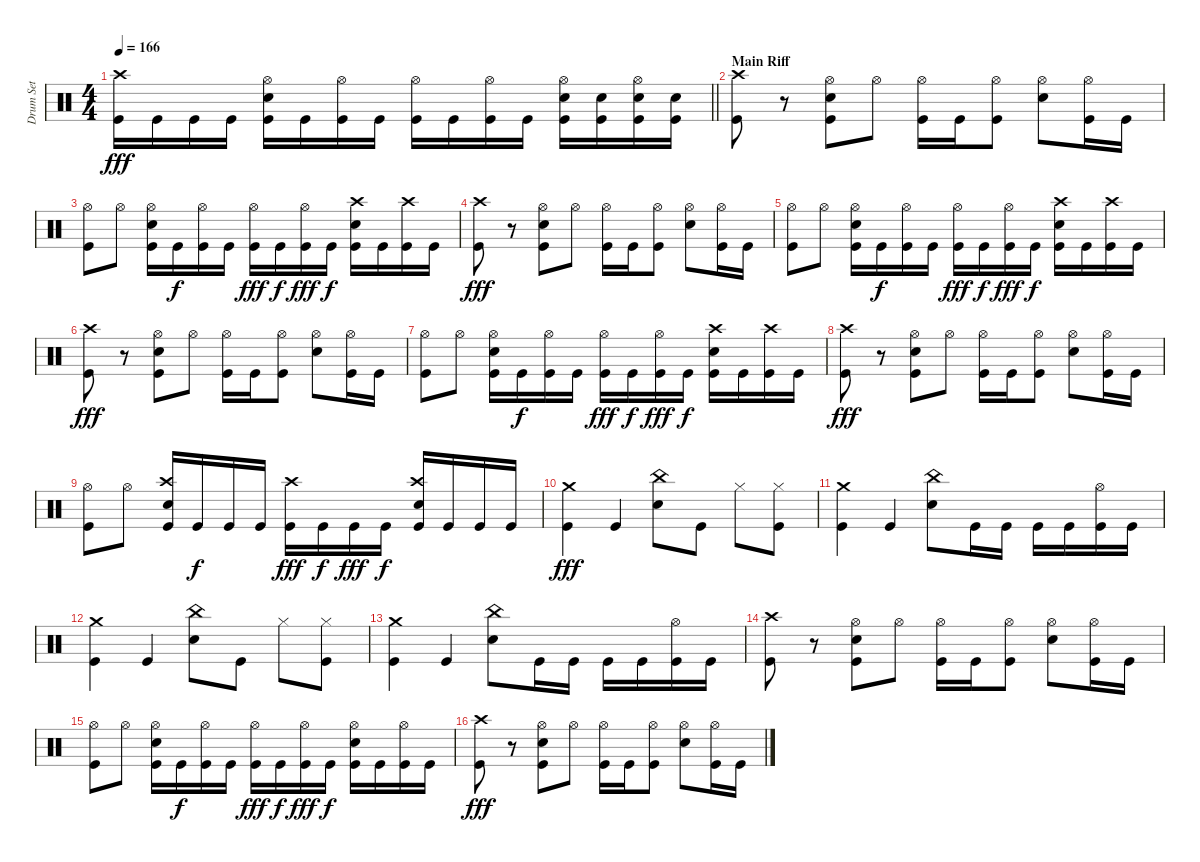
\track ("Drum Set" "Drum Set") {instrument percussion}
\staff {score}
\articulation defaults
\ts (4 4)
\tempo 166
\clef neutral
\barLineRight lightlight
\ks c
("Kick (hit)" "Crash high (hit)").16{dy fff} "Kick (hit)".16 "Kick (hit)".16 "Kick (hit)".16 ("Electric Snare (hit)" "Kick (hit)" "Hi-Hat (open)").16 "Kick (hit)".16 ("Kick (hit)" "Hi-Hat (open)").16 "Kick (hit)".16 ("Kick (hit)" "Hi-Hat (open)").16 "Kick (hit)".16 ("Kick (hit)" "Hi-Hat (open)").16 "Kick (hit)".16 ("Electric Snare (hit)" "Kick (hit)" "Hi-Hat (open)").16 ("Electric Snare (hit)" "Kick (hit)").16 ("Electric Snare (hit)" "Kick (hit)" "Hi-Hat (open)").16 ("Electric Snare (hit)" "Kick (hit)").16 |
\section ("" "Main Riff")
("Kick (hit)" "Crash high (hit)").8 r.8 ("Electric Snare (hit)" "Kick (hit)" "Hi-Hat (open)").8 "Hi-Hat (open)".8 ("Kick (hit)" "Hi-Hat (open)").16 "Kick (hit)".16 ("Kick (hit)" "Hi-Hat (open)").8 ("Electric Snare (hit)" "Hi-Hat (open)").8 ("Kick (hit)" "Hi-Hat (open)").16 "Kick (hit)".16 |
("Kick (hit)" "Hi-Hat (open)").8 "Hi-Hat (open)".8 ("Electric Snare (hit)" "Kick (hit)" "Hi-Hat (open)").16 "Kick (hit)".16{dy f} ("Kick (hit)" "Hi-Hat (open)").16 "Kick (hit)".16 ("Kick (hit)" "Hi-Hat (open)").16{dy fff} "Kick (hit)".16{dy f} ("Kick (hit)" "Hi-Hat (open)").16{dy fff} "Kick (hit)".16{dy f} ("Electric Snare (hit)" "Kick (hit)" "Crash high (hit)").16 "Kick (hit)".16 ("Kick (hit)" "Crash high (hit)").16 "Kick (hit)".16 |
("Kick (hit)" "Crash high (hit)").8{dy fff} r.8 ("Electric Snare (hit)" "Kick (hit)" "Hi-Hat (open)").8 "Hi-Hat (open)".8 ("Kick (hit)" "Hi-Hat (open)").16 "Kick (hit)".16 ("Kick (hit)" "Hi-Hat (open)").8 ("Electric Snare (hit)" "Hi-Hat (open)").8 ("Kick (hit)" "Hi-Hat (open)").16 "Kick (hit)".16 |
("Kick (hit)" "Hi-Hat (open)").8 "Hi-Hat (open)".8 ("Electric Snare (hit)" "Kick (hit)" "Hi-Hat (open)").16 "Kick (hit)".16{dy f} ("Kick (hit)" "Hi-Hat (open)").16 "Kick (hit)".16 ("Kick (hit)" "Hi-Hat (open)").16{dy fff} "Kick (hit)".16{dy f} ("Kick (hit)" "Hi-Hat (open)").16{dy fff} "Kick (hit)".16{dy f} ("Electric Snare (hit)" "Kick (hit)" "Crash high (hit)").16 "Kick (hit)".16 ("Kick (hit)" "Crash high (hit)").16 "Kick (hit)".16 |
("Kick (hit)" "Crash high (hit)").8{dy fff} r.8 ("Electric Snare (hit)" "Kick (hit)" "Hi-Hat (open)").8 "Hi-Hat (open)".8 ("Kick (hit)" "Hi-Hat (open)").16 "Kick (hit)".16 ("Kick (hit)" "Hi-Hat (open)").8 ("Electric Snare (hit)" "Hi-Hat (open)").8 ("Kick (hit)" "Hi-Hat (open)").16 "Kick (hit)".16 |
("Kick (hit)" "Hi-Hat (open)").8 "Hi-Hat (open)".8 ("Electric Snare (hit)" "Kick (hit)" "Hi-Hat (open)").16 "Kick (hit)".16{dy f} ("Kick (hit)" "Hi-Hat (open)").16 "Kick (hit)".16 ("Kick (hit)" "Hi-Hat (open)").16{dy fff} "Kick (hit)".16{dy f} ("Kick (hit)" "Hi-Hat (open)").16{dy fff} "Kick (hit)".16{dy f} ("Electric Snare (hit)" "Kick (hit)" "Crash high (hit)").16 "Kick (hit)".16 ("Kick (hit)" "Crash high (hit)").16 "Kick (hit)".16 |
("Kick (hit)" "Crash high (hit)").8{dy fff} r.8 ("Electric Snare (hit)" "Kick (hit)" "Hi-Hat (open)").8 "Hi-Hat (open)".8 ("Kick (hit)" "Hi-Hat (open)").16 "Kick (hit)".16 ("Kick (hit)" "Hi-Hat (open)").8 ("Electric Snare (hit)" "Hi-Hat (open)").8 ("Kick (hit)" "Hi-Hat (open)").16 "Kick (hit)".16 |
("Kick (hit)" "Hi-Hat (open)").8 "Hi-Hat (open)".8 ("Electric Snare (hit)" "Kick (hit)" "Crash high (hit)").16 "Kick (hit)".16{dy f} "Kick (hit)".16 "Kick (hit)".16 ("Kick (hit)" "Crash high (hit)").16{dy fff} "Kick (hit)".16{dy f} "Kick (hit)".16{dy fff} "Kick (hit)".16{dy f} ("Electric Snare (hit)" "Kick (hit)" "Crash high (hit)").16 "Kick (hit)".16 "Kick (hit)".16 "Kick (hit)".16 |
("Kick (hit)" "Crash medium (hit)").4{dy fff} "Kick (hit)".4 ("Electric Snare (hit)" "China (hit)").8 "Kick (hit)".8 "Hi-Hat (closed)".8 ("Kick (hit)" "Hi-Hat (closed)").8 |
("Kick (hit)" "Crash medium (hit)").4 "Kick (hit)".4 ("Electric Snare (hit)" "China (hit)").8 "Kick (hit)".16 "Kick (hit)".16 "Kick (hit)".16 "Kick (hit)".16 ("Kick (hit)" "Hi-Hat (open)").16 "Kick (hit)".16 |
("Kick (hit)" "Crash medium (hit)").4 "Kick (hit)".4 ("Electric Snare (hit)" "China (hit)").8 "Kick (hit)".8 "Hi-Hat (closed)".8 ("Kick (hit)" "Hi-Hat (closed)").8 |
("Kick (hit)" "Crash medium (hit)").4 "Kick (hit)".4 ("Electric Snare (hit)" "China (hit)").8 "Kick (hit)".16 "Kick (hit)".16 "Kick (hit)".16 "Kick (hit)".16 ("Kick (hit)" "Hi-Hat (open)").16 "Kick (hit)".16 |
("Kick (hit)" "Crash high (hit)").8 r.8 ("Electric Snare (hit)" "Kick (hit)" "Hi-Hat (open)").8 "Hi-Hat (open)".8 ("Kick (hit)" "Hi-Hat (open)").16 "Kick (hit)".16 ("Kick (hit)" "Hi-Hat (open)").8 ("Electric Snare (hit)" "Hi-Hat (open)").8 ("Kick (hit)" "Hi-Hat (open)").16 "Kick (hit)".16 |
("Kick (hit)" "Hi-Hat (open)").8 "Hi-Hat (open)".8 ("Electric Snare (hit)" "Kick (hit)" "Hi-Hat (open)").16 "Kick (hit)".16{dy f} ("Kick (hit)" "Hi-Hat (open)").16 "Kick (hit)".16 ("Kick (hit)" "Hi-Hat (open)").16{dy fff} "Kick (hit)".16{dy f} ("Kick (hit)" "Hi-Hat (open)").16{dy fff} "Kick (hit)".16{dy f} ("Electric Snare (hit)" "Kick (hit)" "Hi-Hat (open)").16 "Kick (hit)".16 ("Kick (hit)" "Hi-Hat (open)").16 "Kick (hit)".16 |
("Kick (hit)" "Crash high (hit)").8{dy fff} r.8 ("Electric Snare (hit)" "Kick (hit)" "Hi-Hat (open)").8 "Hi-Hat (open)".8 ("Kick (hit)" "Hi-Hat (open)").16 "Kick (hit)".16 ("Kick (hit)" "Hi-Hat (open)").8 ("Electric Snare (hit)" "Hi-Hat (open)").8 ("Kick (hit)" "Hi-Hat (open)").16 "Kick (hit)".16
